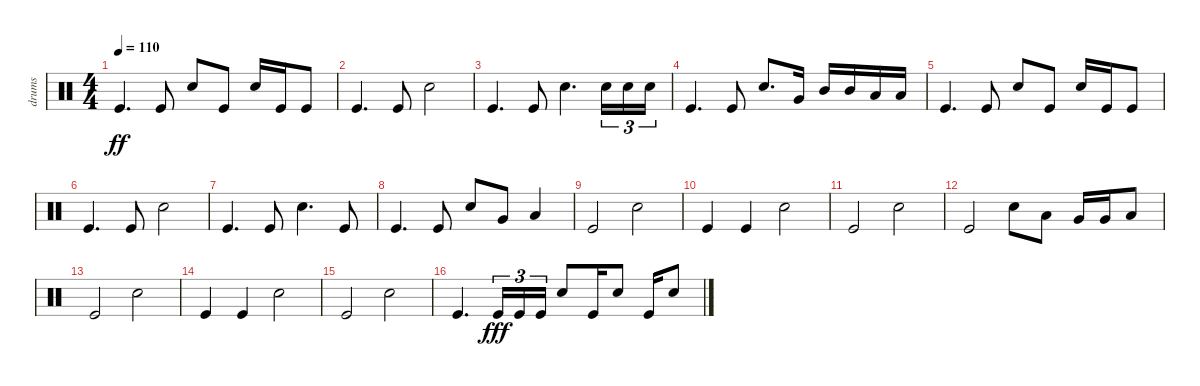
\track ("drums" "drums") {instrument percussion}
\staff {score}
\articulation defaults
\ts (4 4)
\tempo 110
\clef neutral
\ks c "Kick (hit)".4{d dy ff} "Kick (hit)".8 "Electric Snare (hit)".8 "Kick (hit)".8 "Electric Snare (hit)".16 "Kick (hit)".16 "Kick (hit)".8
|
"Kick (hit)".4{d} "Kick (hit)".8 "Electric Snare (hit)".2 |
"Kick (hit)".4{d} "Kick (hit)".8 "Electric Snare (hit)".4{d} "Electric Snare (hit)".16{tu (3 2)} "Electric Snare (hit)".16{tu (3 2)} "Electric Snare (hit)".16{tu (3 2)} |
"Kick (hit)".4{d} "Kick (hit)".8 "Electric Snare (hit)".8{d} "Very Low Tom (hit)".16 "Mid Tom (hit)".16 "Mid Tom (hit)".16 "Low Tom (hit)".16 "Low Tom (hit)".16 |
"Kick (hit)".4{d} "Kick (hit)".8 "Electric Snare (hit)".8 "Kick (hit)".8 "Electric Snare (hit)".16 "Kick (hit)".16 "Kick (hit)".8 |
"Kick (hit)".4{d} "Kick (hit)".8 "Electric Snare (hit)".2 |
"Kick (hit)".4{d} "Kick (hit)".8 "Electric Snare (hit)".4{d} "Kick (hit)".8 |
"Kick (hit)".4{d} "Kick (hit)".8 "Electric Snare (hit)".8 "Very Low Tom (hit)".8 "Low Floor Tom (hit)".4 |
"Kick (hit)".2 "Electric Snare (hit)".2 |
"Kick (hit)".4 "Kick (hit)".4 "Electric Snare (hit)".2 |
"Kick (hit)".2 "Electric Snare (hit)".2 |
"Kick (hit)".2 "Electric Snare (hit)".8 "Low Tom (hit)".8 "Very Low Tom (hit)".16 "Very Low Tom (hit)".16 "Low Floor Tom (hit)".8 |
"Kick (hit)".2 "Electric Snare (hit)".2 |
"Kick (hit)".4 "Kick (hit)".4 "Electric Snare (hit)".2 |
"Kick (hit)".2 "Electric Snare (hit)".2 |
"Kick (hit)".4{d} "Kick (hit)".16{tu (3 2) dy fff} "Kick (hit)".16{tu (3 2)} "Kick (hit)".16{tu (3 2)} "Electric Snare (hit)".8 "Kick (hit)".16 "Electric Snare (hit)".8 "Kick (hit)".16 "Electric Snare (hit)".8
